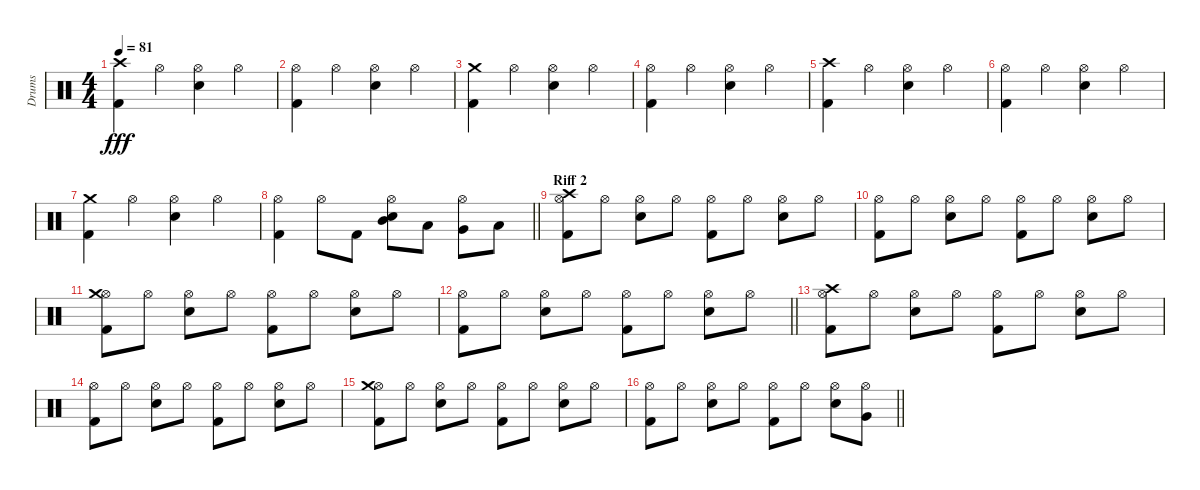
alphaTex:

\track ("Drums" "Drums") {instrument percussion}
\staff {score}
\articulation defaults
\ts (4 4)
\tempo 81
\clef neutral
\ks c
("Crash high (hit)" "Kick (hit) 2").4{dy fff} "Hi-Hat (open)".4 ("Hi-Hat (open)" "Electric Snare (hit)").4 "Hi-Hat (open)".4 |
("Hi-Hat (open)" "Kick (hit) 2").4 "Hi-Hat (open)".4 ("Hi-Hat (open)" "Electric Snare (hit)").4 "Hi-Hat (open)".4 |
("Crash medium (hit)" "Kick (hit) 2").4 "Hi-Hat (open)".4 ("Hi-Hat (open)" "Electric Snare (hit)").4 "Hi-Hat (open)".4 |
("Hi-Hat (open)" "Kick (hit) 2").4 "Hi-Hat (open)".4 ("Hi-Hat (open)" "Electric Snare (hit)").4 "Hi-Hat (open)".4 |
("Crash high (hit)" "Kick (hit) 2").4 "Hi-Hat (open)".4 ("Hi-Hat (open)" "Electric Snare (hit)").4 "Hi-Hat (open)".4 |
("Hi-Hat (open)" "Kick (hit) 2").4 "Hi-Hat (open)".4 ("Hi-Hat (open)" "Electric Snare (hit)").4 "Hi-Hat (open)".4 |
("Crash medium (hit)" "Kick (hit) 2").4 "Hi-Hat (open)".4 ("Hi-Hat (open)" "Electric Snare (hit)").4 "Hi-Hat (open)".4 |
\barLineRight lightlight
("Hi-Hat (open)" "Kick (hit) 2").4 "Hi-Hat (open)".8 "Kick (hit) 2".8 ("Hi-Hat (open)" "Mid Tom (hit)" "Electric Snare (hit)").8 "Low Tom (hit)".8 ("Hi-Hat (open)" "Very Low Tom (hit)").8 "Low Floor Tom (hit)".8 |
\section ("" "Riff 2")
("Hi-Hat (open)" "Crash high (hit)" "Kick (hit) 2").8 "Hi-Hat (open)".8 ("Hi-Hat (open)" "Electric Snare (hit)").8 "Hi-Hat (open)".8 ("Hi-Hat (open)" "Kick (hit) 2").8 "Hi-Hat (open)".8 ("Hi-Hat (open)" "Electric Snare (hit)").8 "Hi-Hat (open)".8 |
("Hi-Hat (open)" "Kick (hit) 2").8 "Hi-Hat (open)".8 ("Hi-Hat (open)" "Electric Snare (hit)").8 "Hi-Hat (open)".8 ("Hi-Hat (open)" "Kick (hit) 2").8 "Hi-Hat (open)".8 ("Hi-Hat (open)" "Electric Snare (hit)").8 "Hi-Hat (open)".8 |
("Hi-Hat (open)" "Crash medium (hit)" "Kick (hit) 2").8 "Hi-Hat (open)".8 ("Hi-Hat (open)" "Electric Snare (hit)").8 "Hi-Hat (open)".8 ("Hi-Hat (open)" "Kick (hit) 2").8 "Hi-Hat (open)".8 ("Hi-Hat (open)" "Electric Snare (hit)").8 "Hi-Hat (open)".8 |
\barLineRight lightlight
("Hi-Hat (open)" "Kick (hit) 2").8 "Hi-Hat (open)".8 ("Hi-Hat (open)" "Electric Snare (hit)").8 "Hi-Hat (open)".8 ("Hi-Hat (open)" "Kick (hit) 2").8 "Hi-Hat (open)".8 ("Hi-Hat (open)" "Electric Snare (hit)").8 "Hi-Hat (open)".8 |
("Hi-Hat (open)" "Crash high (hit)" "Kick (hit) 2").8 "Hi-Hat (open)".8 ("Hi-Hat (open)" "Electric Snare (hit)").8 "Hi-Hat (open)".8 ("Hi-Hat (open)" "Kick (hit) 2").8 "Hi-Hat (open)".8 ("Hi-Hat (open)" "Electric Snare (hit)").8 "Hi-Hat (open)".8 |
("Hi-Hat (open)" "Kick (hit) 2").8 "Hi-Hat (open)".8 ("Hi-Hat (open)" "Electric Snare (hit)").8 "Hi-Hat (open)".8 ("Hi-Hat (open)" "Kick (hit) 2").8 "Hi-Hat (open)".8 ("Hi-Hat (open)" "Electric Snare (hit)").8 "Hi-Hat (open)".8 |
("Hi-Hat (open)" "Crash medium (hit)" "Kick (hit) 2").8 "Hi-Hat (open)".8 ("Hi-Hat (open)" "Electric Snare (hit)").8 "Hi-Hat (open)".8 ("Hi-Hat (open)" "Kick (hit) 2").8 "Hi-Hat (open)".8 ("Hi-Hat (open)" "Electric Snare (hit)").8 "Hi-Hat (open)".8 |
\barLineRight lightlight
("Hi-Hat (open)" "Kick (hit) 2").8 "Hi-Hat (open)".8 ("Hi-Hat (open)" "Electric Snare (hit)").8 "Hi-Hat (open)".8 ("Hi-Hat (open)" "Kick (hit) 2").8 "Hi-Hat (open)".8 ("Hi-Hat (open)" "Electric Snare (hit)").8 ("Hi-Hat (open)" "Very Low Tom (hit)").8
